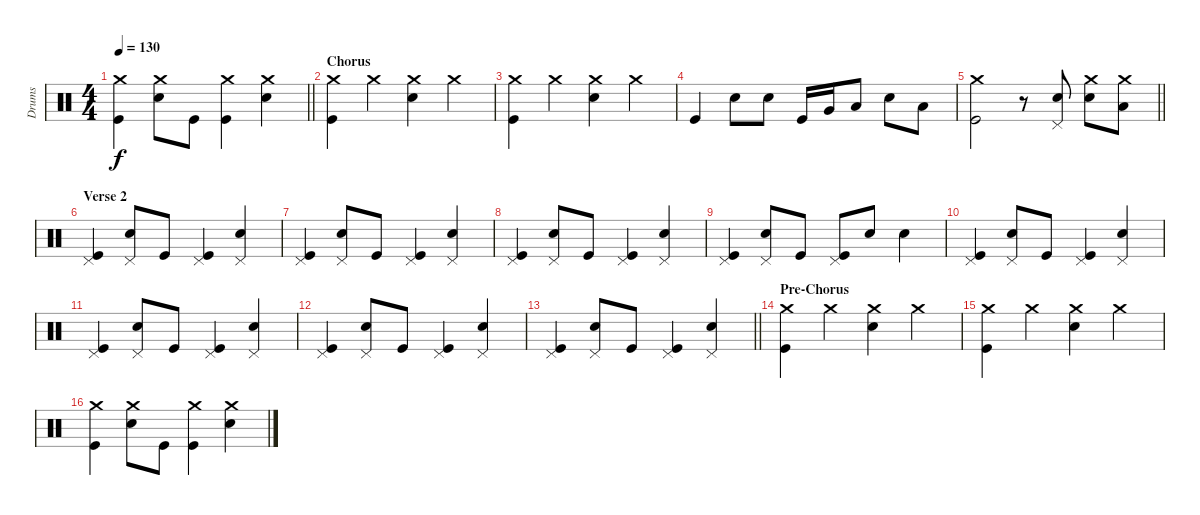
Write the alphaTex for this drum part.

\track ("Drums" "Drums") {instrument percussion}
\staff {score}
\articulation defaults
\ts (4 4)
\tempo 130
\clef neutral
\barLineRight lightlight
\ks c
("Kick (hit)" "Crash medium (hit)").4{dy f} ("Electric Snare (hit)" "Crash medium (hit)").8 "Kick (hit)".8 ("Kick (hit)" "Crash medium (hit)").4 ("Electric Snare (hit)" "Crash medium (hit)").4 |
\section ("" "Chorus")
("Kick (hit)" "Crash medium (hit)").4 "Crash medium (hit)".4 ("Electric Snare (hit)" "Crash medium (hit)").4 "Crash medium (hit)".4 |
("Kick (hit)" "Crash medium (hit)").4 "Crash medium (hit)".4 ("Electric Snare (hit)" "Crash medium (hit)").4 "Crash medium (hit)".4 |
"Kick (hit)".4 "Electric Snare (hit)".8 "Electric Snare (hit)".8 "Kick (hit)".16 "Very Low Tom (hit)".16 "Low Floor Tom (hit)".8 "Electric Snare (hit)".8 "Low Floor Tom (hit)".8 |
\barLineRight lightlight
("Kick (hit)" "Crash medium (hit)").2 r.8 ("Electric Snare (hit)" "Pedal Hi-Hat (hit)").8 ("Electric Snare (hit)" "Crash medium (hit)").8 ("Low Floor Tom (hit)" "Crash medium (hit)").8 |
\section ("" "Verse 2")
("Kick (hit)" "Pedal Hi-Hat (hit)").4 ("Electric Snare (hit)" "Pedal Hi-Hat (hit)").8 "Kick (hit)".8 ("Kick (hit)" "Pedal Hi-Hat (hit)").4 ("Electric Snare (hit)" "Pedal Hi-Hat (hit)").4 |
("Kick (hit)" "Pedal Hi-Hat (hit)").4 ("Electric Snare (hit)" "Pedal Hi-Hat (hit)").8 "Kick (hit)".8 ("Kick (hit)" "Pedal Hi-Hat (hit)").4 ("Electric Snare (hit)" "Pedal Hi-Hat (hit)").4 |
("Kick (hit)" "Pedal Hi-Hat (hit)").4 ("Electric Snare (hit)" "Pedal Hi-Hat (hit)").8 "Kick (hit)".8 ("Kick (hit)" "Pedal Hi-Hat (hit)").4 ("Electric Snare (hit)" "Pedal Hi-Hat (hit)").4 |
("Kick (hit)" "Pedal Hi-Hat (hit)").4 ("Electric Snare (hit)" "Pedal Hi-Hat (hit)").8 "Kick (hit)".8 ("Kick (hit)" "Pedal Hi-Hat (hit)").8 "Electric Snare (hit)".8 "Electric Snare (hit)".4 |
("Kick (hit)" "Pedal Hi-Hat (hit)").4 ("Electric Snare (hit)" "Pedal Hi-Hat (hit)").8 "Kick (hit)".8 ("Kick (hit)" "Pedal Hi-Hat (hit)").4 ("Electric Snare (hit)" "Pedal Hi-Hat (hit)").4 |
("Kick (hit)" "Pedal Hi-Hat (hit)").4 ("Electric Snare (hit)" "Pedal Hi-Hat (hit)").8 "Kick (hit)".8 ("Kick (hit)" "Pedal Hi-Hat (hit)").4 ("Electric Snare (hit)" "Pedal Hi-Hat (hit)").4 |
("Kick (hit)" "Pedal Hi-Hat (hit)").4 ("Electric Snare (hit)" "Pedal Hi-Hat (hit)").8 "Kick (hit)".8 ("Kick (hit)" "Pedal Hi-Hat (hit)").4 ("Electric Snare (hit)" "Pedal Hi-Hat (hit)").4 |
\barLineRight lightlight
("Kick (hit)" "Pedal Hi-Hat (hit)").4 ("Electric Snare (hit)" "Pedal Hi-Hat (hit)").8 "Kick (hit)".8 ("Kick (hit)" "Pedal Hi-Hat (hit)").4 ("Electric Snare (hit)" "Pedal Hi-Hat (hit)").4 |
\section ("" "Pre-Chorus")
("Kick (hit)" "Crash medium (hit)").4 "Crash medium (hit)".4 ("Electric Snare (hit)" "Crash medium (hit)").4 "Crash medium (hit)".4 |
("Kick (hit)" "Crash medium (hit)").4 "Crash medium (hit)".4 ("Electric Snare (hit)" "Crash medium (hit)").4 "Crash medium (hit)".4 |
("Kick (hit)" "Crash medium (hit)").4 ("Electric Snare (hit)" "Crash medium (hit)").8 "Kick (hit)".8 ("Kick (hit)" "Crash medium (hit)").4 ("Electric Snare (hit)" "Crash medium (hit)").4
